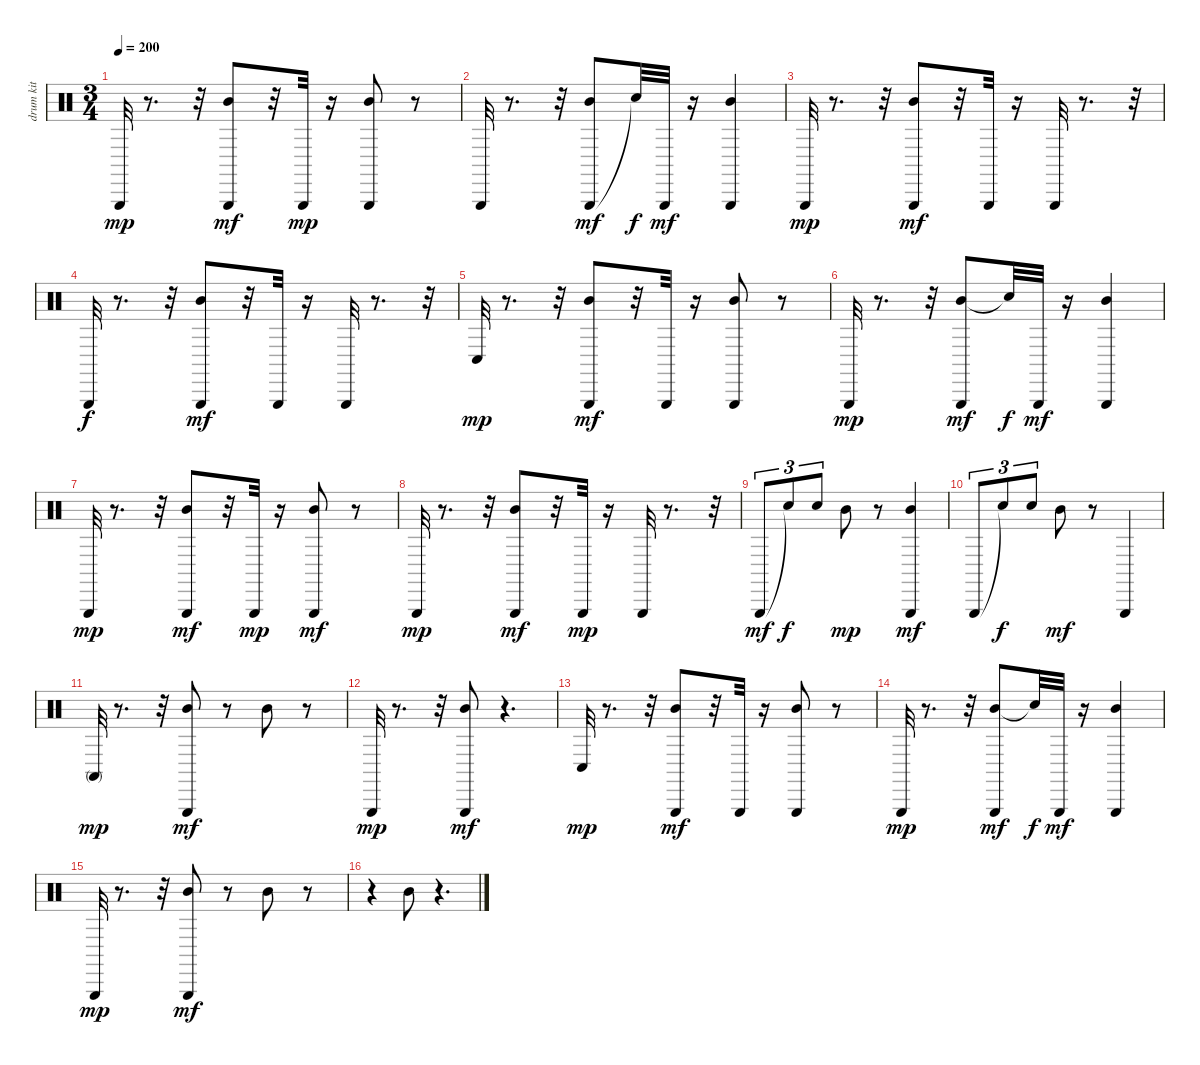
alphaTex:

\track (" drum kit (hi-hat/cymbals)" " drum kit ") {instrument percussion}
\staff {score}
\articulation defaults
\ts (3 4)
\tempo 200
\clef neutral
\ks c "Triangle (hit)".32{dy mp}
r.8{d} r.32 ("Mid Tom (hit)" "Triangle (hit)").8{dy mf} r.32 "Triangle (hit)".32{dy mp} r.16 ("Mid Tom (hit)" "Triangle (hit)").8 r.8 |
"Triangle (hit)".32 r.8{d} r.32 ("Triangle (hit)" "Mid Tom (hit)").8{dy mf} "Snare (hit)"{t}.32{dy f} "Triangle (hit)".32{dy mf} r.16 ("Triangle (hit)" "Mid Tom (hit)").4 |
"Triangle (hit)".32{dy mp} r.8{d} r.32 ("Mid Tom (hit)" "Triangle (hit)").8{dy mf} r.32 "Triangle (hit)".32 r.16 "Triangle (hit)".32 r.8{d} r.32 |
"Triangle (hit)".32{dy f} r.8{d} r.32 ("Mid Tom (hit)" "Triangle (hit)").8{dy mf} r.32 "Triangle (hit)".32 r.16 "Triangle (hit)".32 r.8{d} r.32 |
"Conga low (hit)".32{dy mp} r.8{d} r.32 ("Mid Tom (hit)" "Triangle (hit)").8{dy mf} r.32 "Triangle (hit)".32 r.16 ("Mid Tom (hit)" "Triangle (hit)").8 r.8 |
"Triangle (hit)".32{dy mp} r.8{d} r.32 ("Mid Tom (hit)" "Triangle (hit)").8{dy mf} "Snare (hit)"{t}.32{dy f} "Triangle (hit)".32{dy mf} r.16 ("Mid Tom (hit)" "Triangle (hit)").4 |
"Triangle (hit)".32{dy mp} r.8{d} r.32 ("Mid Tom (hit)" "Triangle (hit)").8{dy mf} r.32 "Triangle (hit)".32{dy mp} r.16 ("Mid Tom (hit)" "Triangle (hit)").8{dy mf} r.8 |
"Triangle (hit)".32{dy mp} r.8{d} r.32 ("Mid Tom (hit)" "Triangle (hit)").8{dy mf} r.32 "Triangle (hit)".32{dy mp} r.16 "Triangle (hit)".32 r.8{d} r.32 |
"Triangle (hit)".8{tu (3 2) dy mf} "Snare (hit)"{t}.8{tu (3 2) dy f} "Snare (hit)".8{tu (3 2)} "Mid Tom (hit)".8{dy mp} r.8 ("Mid Tom (hit)" "Triangle (hit)").4{dy mf} |
"Triangle (hit)".8{tu (3 2)} "Snare (hit)"{t}.8{tu (3 2) dy f} "Snare (hit)".8{tu (3 2)} "Mid Tom (hit)".8{dy mf} r.8 "Triangle (hit)".4 |
"Conga high (mute)".32{dy mp} r.8{d} r.32 ("Mid Tom (hit)" "Triangle (hit)").8{dy mf} r.8 "Mid Tom (hit)".8 r.8 |
"Triangle (hit)".32{dy mp} r.8{d} r.32 ("Triangle (hit)" "Mid Tom (hit)").8{dy mf} r.4{d} |
"Conga low (hit)".32{dy mp} r.8{d} r.32 ("Mid Tom (hit)" "Triangle (hit)").8{dy mf} r.32 "Triangle (hit)".32 r.16 ("Mid Tom (hit)" "Triangle (hit)").8 r.8 |
"Triangle (hit)".32{dy mp} r.8{d} r.32 ("Mid Tom (hit)" "Triangle (hit)").8{dy mf} "Snare (hit)"{t}.32{dy f} "Triangle (hit)".32{dy mf} r.16 ("Mid Tom (hit)" "Triangle (hit)").4 |
"Triangle (hit)".32{dy mp} r.8{d} r.32 ("Mid Tom (hit)" "Triangle (hit)").8{dy mf} r.8 "Mid Tom (hit)".8 r.8 |
r.4 "Mid Tom (hit)".8 r.4{d}
